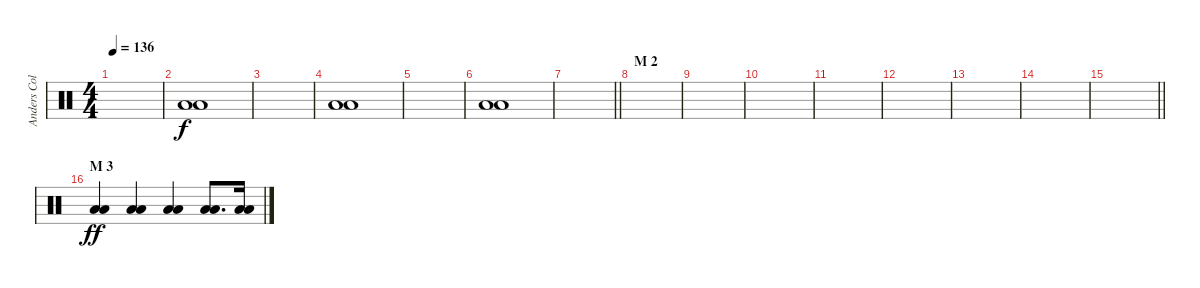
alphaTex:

\track ("Anders Colsefini" "Anders Col") {instrument percussion}
\staff {score}
\articulation defaults
\ts (4 4)
\tempo 136
\clef neutral
\ks c
|
("Low Floor Tom (hit)" "Low Floor Tom (hit)").1 |
|
("Low Floor Tom (hit)" "Low Floor Tom (hit)").1 |
|
("Low Floor Tom (hit)" "Low Floor Tom (hit)").1 |
\barLineRight lightlight
|
\section ("" "M 2")
|
|
|
|
|
|
|
\barLineRight lightlight
|
\section ("" "M 3")
("Low Floor Tom (hit)" "Low Floor Tom (hit)").4{dy ff} ("Low Floor Tom (hit)" "Low Floor Tom (hit)").4 ("Low Floor Tom (hit)" "Low Floor Tom (hit)").4 ("Low Floor Tom (hit)" "Low Floor Tom (hit)").8{d} ("Low Floor Tom (hit)" "Low Floor Tom (hit)").16
